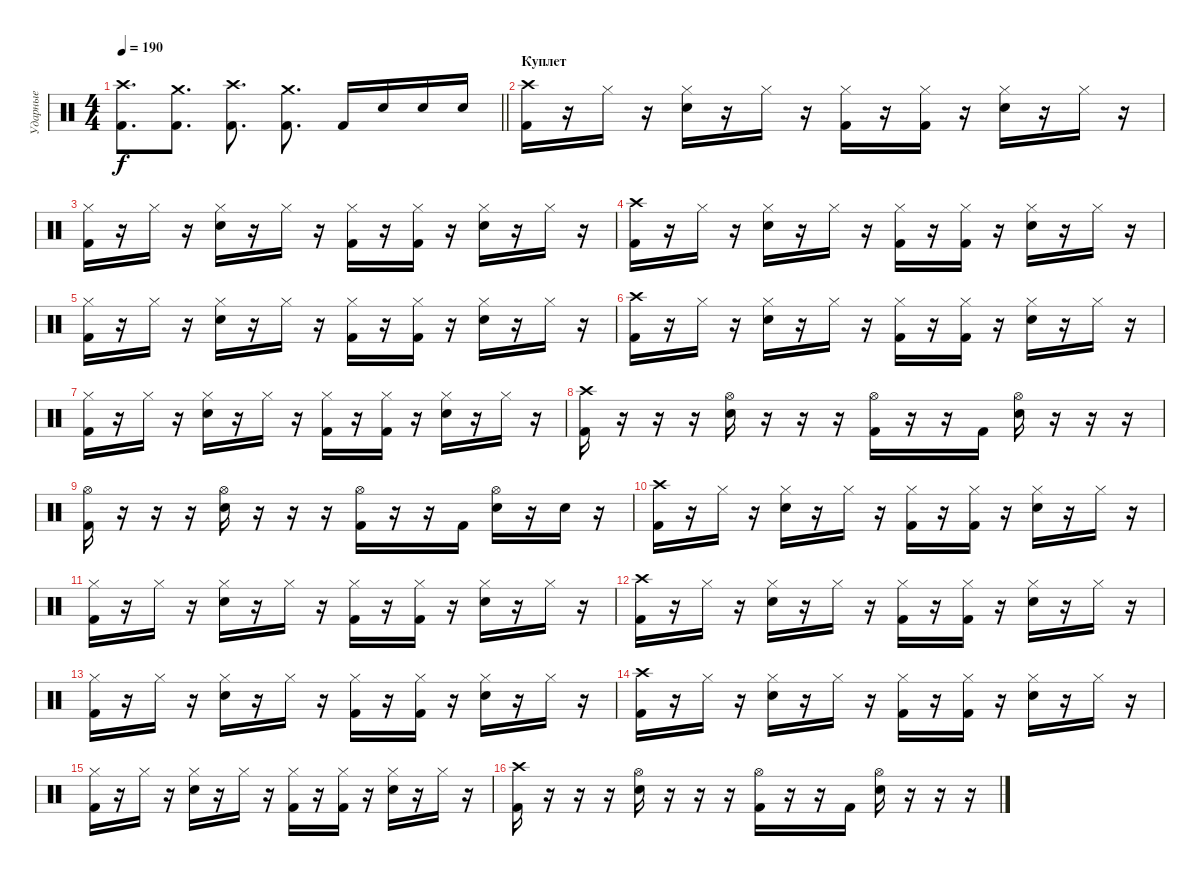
\track ("Ударные" "Ударные") {instrument percussion}
\staff {score}
\articulation defaults
\ts (4 4)
\tempo 190
\clef neutral
\barLineRight lightlight
\ks c
("Crash high (hit)" "Kick (hit) 2").8{d dy f} ("Crash medium (hit)" "Kick (hit) 2").8{d} ("Crash high (hit)" "Kick (hit) 2").8{d} ("Crash medium (hit)" "Kick (hit) 2").8{d} "Kick (hit) 2".16 "Snare (hit) 2".16 "Snare (hit) 2".16 "Electric Snare (hit)".16 |
\section ("" "Куплет")
("Crash high (hit)" "Kick (hit) 2").16 r.16 "Hi-Hat (closed)".16 r.16 ("Hi-Hat (closed)" "Electric Snare (hit)").16 r.16 "Hi-Hat (closed)".16 r.16 ("Hi-Hat (closed)" "Kick (hit) 2").16 r.16 ("Hi-Hat (closed)" "Kick (hit) 2").16 r.16 ("Hi-Hat (closed)" "Electric Snare (hit)").16 r.16 "Hi-Hat (closed)".16 r.16 |
("Hi-Hat (closed)" "Kick (hit) 2").16 r.16 "Hi-Hat (closed)".16 r.16 ("Hi-Hat (closed)" "Electric Snare (hit)").16 r.16 "Hi-Hat (closed)".16 r.16 ("Hi-Hat (closed)" "Kick (hit) 2").16 r.16 ("Hi-Hat (closed)" "Kick (hit) 2").16 r.16 ("Hi-Hat (closed)" "Electric Snare (hit)").16 r.16 "Hi-Hat (closed)".16 r.16 |
("Crash high (hit)" "Kick (hit) 2").16 r.16 "Hi-Hat (closed)".16 r.16 ("Hi-Hat (closed)" "Electric Snare (hit)").16 r.16 "Hi-Hat (closed)".16 r.16 ("Hi-Hat (closed)" "Kick (hit) 2").16 r.16 ("Hi-Hat (closed)" "Kick (hit) 2").16 r.16 ("Hi-Hat (closed)" "Electric Snare (hit)").16 r.16 "Hi-Hat (closed)".16 r.16 |
("Hi-Hat (closed)" "Kick (hit) 2").16 r.16 "Hi-Hat (closed)".16 r.16 ("Hi-Hat (closed)" "Electric Snare (hit)").16 r.16 "Hi-Hat (closed)".16 r.16 ("Hi-Hat (closed)" "Kick (hit) 2").16 r.16 ("Hi-Hat (closed)" "Kick (hit) 2").16 r.16 ("Hi-Hat (closed)" "Electric Snare (hit)").16 r.16 "Hi-Hat (closed)".16 r.16 |
("Crash high (hit)" "Kick (hit) 2").16 r.16 "Hi-Hat (closed)".16 r.16 ("Hi-Hat (closed)" "Electric Snare (hit)").16 r.16 "Hi-Hat (closed)".16 r.16 ("Hi-Hat (closed)" "Kick (hit) 2").16 r.16 ("Hi-Hat (closed)" "Kick (hit) 2").16 r.16 ("Hi-Hat (closed)" "Electric Snare (hit)").16 r.16 "Hi-Hat (closed)".16 r.16 |
("Hi-Hat (closed)" "Kick (hit) 2").16 r.16 "Hi-Hat (closed)".16 r.16 ("Hi-Hat (closed)" "Electric Snare (hit)").16 r.16 "Hi-Hat (closed)".16 r.16 ("Hi-Hat (closed)" "Kick (hit) 2").16 r.16 ("Hi-Hat (closed)" "Kick (hit) 2").16 r.16 ("Hi-Hat (closed)" "Electric Snare (hit)").16 r.16 "Hi-Hat (closed)".16 r.16 |
("Crash high (hit)" "Kick (hit) 2").16 r.16 r.16 r.16 ("Hi-Hat (open)" "Electric Snare (hit)").16 r.16 r.16 r.16 ("Hi-Hat (open)" "Kick (hit) 2").16 r.16 r.16 "Kick (hit) 2".16 ("Hi-Hat (open)" "Electric Snare (hit)").16 r.16 r.16 r.16 |
("Hi-Hat (open)" "Kick (hit) 2").16 r.16 r.16 r.16 ("Hi-Hat (open)" "Electric Snare (hit)").16 r.16 r.16 r.16 ("Hi-Hat (open)" "Kick (hit) 2").16 r.16 r.16 "Kick (hit) 2".16 ("Hi-Hat (open)" "Electric Snare (hit)").16 r.16 "Snare (hit) 2".16 r.16 |
("Crash high (hit)" "Kick (hit) 2").16 r.16 "Hi-Hat (closed)".16 r.16 ("Hi-Hat (closed)" "Electric Snare (hit)").16 r.16 "Hi-Hat (closed)".16 r.16 ("Hi-Hat (closed)" "Kick (hit) 2").16 r.16 ("Hi-Hat (closed)" "Kick (hit) 2").16 r.16 ("Hi-Hat (closed)" "Electric Snare (hit)").16 r.16 "Hi-Hat (closed)".16 r.16 |
("Hi-Hat (closed)" "Kick (hit) 2").16 r.16 "Hi-Hat (closed)".16 r.16 ("Hi-Hat (closed)" "Electric Snare (hit)").16 r.16 "Hi-Hat (closed)".16 r.16 ("Hi-Hat (closed)" "Kick (hit) 2").16 r.16 ("Hi-Hat (closed)" "Kick (hit) 2").16 r.16 ("Hi-Hat (closed)" "Electric Snare (hit)").16 r.16 "Hi-Hat (closed)".16 r.16 |
("Crash high (hit)" "Kick (hit) 2").16 r.16 "Hi-Hat (closed)".16 r.16 ("Hi-Hat (closed)" "Electric Snare (hit)").16 r.16 "Hi-Hat (closed)".16 r.16 ("Hi-Hat (closed)" "Kick (hit) 2").16 r.16 ("Hi-Hat (closed)" "Kick (hit) 2").16 r.16 ("Hi-Hat (closed)" "Electric Snare (hit)").16 r.16 "Hi-Hat (closed)".16 r.16 |
("Hi-Hat (closed)" "Kick (hit) 2").16 r.16 "Hi-Hat (closed)".16 r.16 ("Hi-Hat (closed)" "Electric Snare (hit)").16 r.16 "Hi-Hat (closed)".16 r.16 ("Hi-Hat (closed)" "Kick (hit) 2").16 r.16 ("Hi-Hat (closed)" "Kick (hit) 2").16 r.16 ("Hi-Hat (closed)" "Electric Snare (hit)").16 r.16 "Hi-Hat (closed)".16 r.16 |
("Crash high (hit)" "Kick (hit) 2").16 r.16 "Hi-Hat (closed)".16 r.16 ("Hi-Hat (closed)" "Electric Snare (hit)").16 r.16 "Hi-Hat (closed)".16 r.16 ("Hi-Hat (closed)" "Kick (hit) 2").16 r.16 ("Hi-Hat (closed)" "Kick (hit) 2").16 r.16 ("Hi-Hat (closed)" "Electric Snare (hit)").16 r.16 "Hi-Hat (closed)".16 r.16 |
("Hi-Hat (closed)" "Kick (hit) 2").16 r.16 "Hi-Hat (closed)".16 r.16 ("Hi-Hat (closed)" "Electric Snare (hit)").16 r.16 "Hi-Hat (closed)".16 r.16 ("Hi-Hat (closed)" "Kick (hit) 2").16 r.16 ("Hi-Hat (closed)" "Kick (hit) 2").16 r.16 ("Hi-Hat (closed)" "Electric Snare (hit)").16 r.16 "Hi-Hat (closed)".16 r.16 |
("Crash high (hit)" "Kick (hit) 2").16 r.16 r.16 r.16 ("Hi-Hat (open)" "Electric Snare (hit)").16 r.16 r.16 r.16 ("Hi-Hat (open)" "Kick (hit) 2").16 r.16 r.16 "Kick (hit) 2".16 ("Hi-Hat (open)" "Electric Snare (hit)").16 r.16 r.16 r.16
